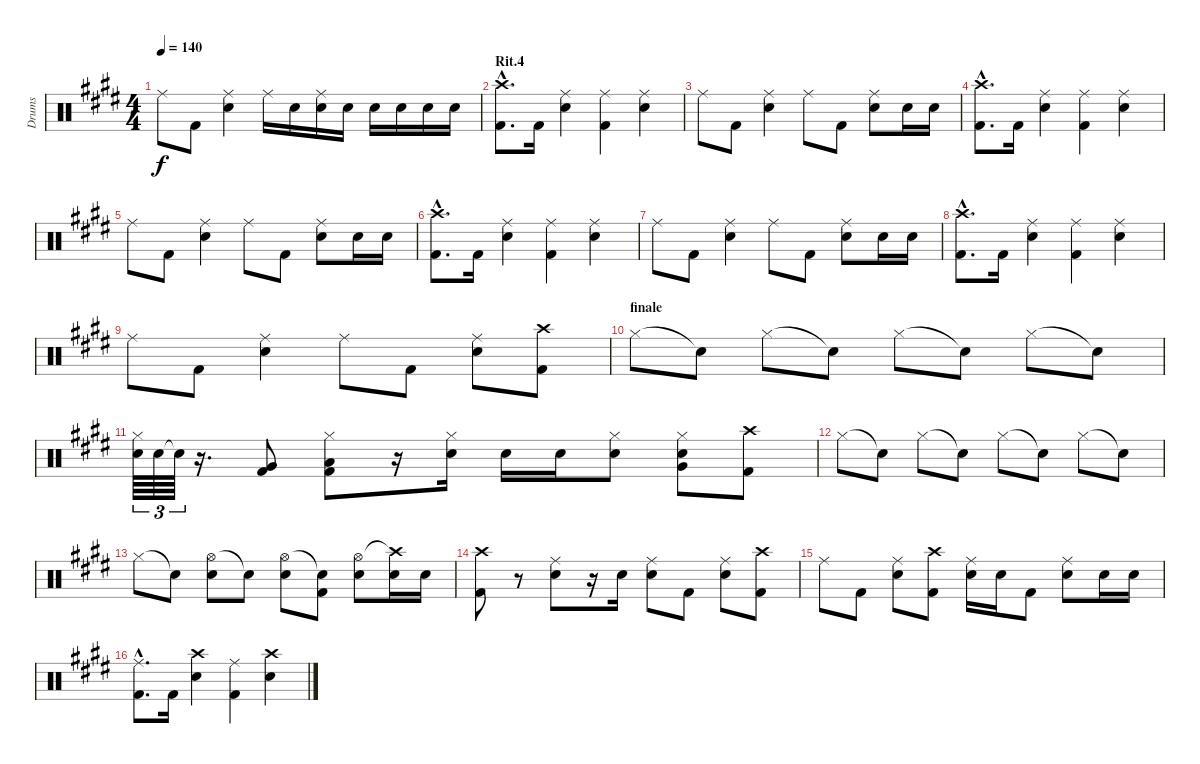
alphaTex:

\track ("Drums" "Drums") {instrument percussion}
\staff {score}
\articulation defaults
\ts (4 4)
\tempo 140
\clef neutral
\ks c#minor "Ride (middle)".8{dy f} "Kick (hit) 2".8
("Ride (middle)" "Snare (hit) 2").4 "Ride (middle)".16 "Snare (hit) 2".16 ("Ride (middle)" "Snare (hit) 2").16 "Snare (hit) 2".16 "Snare (hit) 2".16 "Snare (hit) 2".16 "Snare (hit) 2".16 "Snare (hit) 2".16 |
\section ("" "Rit.4")
("Crash high (hit)" "Kick (hit) 2"{hac}).8{d} "Kick (hit) 2".16 ("Ride (middle)" "Snare (hit) 2").4 ("Ride (middle)" "Kick (hit) 2").4 ("Ride (middle)" "Snare (hit) 2").4 |
"Ride (middle)".8 "Kick (hit) 2".8 ("Ride (middle)" "Snare (hit) 2").4 "Ride (middle)".8 "Kick (hit) 2".8 ("Ride (middle)" "Snare (hit) 2").8 "Snare (hit) 2".16 "Snare (hit) 2".16 |
("Crash high (hit)" "Kick (hit) 2"{hac}).8{d} "Kick (hit) 2".16 ("Ride (middle)" "Snare (hit) 2").4 ("Ride (middle)" "Kick (hit) 2").4 ("Ride (middle)" "Snare (hit) 2").4 |
"Ride (middle)".8 "Kick (hit) 2".8 ("Ride (middle)" "Snare (hit) 2").4 "Ride (middle)".8 "Kick (hit) 2".8 ("Ride (middle)" "Snare (hit) 2").8 "Snare (hit) 2".16 "Snare (hit) 2".16 |
("Crash high (hit)"{hac} "Kick (hit) 2"{hac}).8{d} "Kick (hit) 2".16 ("Ride (middle)" "Snare (hit) 2").4 ("Ride (middle)" "Kick (hit) 2").4 ("Ride (middle)" "Snare (hit) 2").4 |
"Ride (middle)".8 "Kick (hit) 2".8 ("Ride (middle)" "Snare (hit) 2").4 "Ride (middle)".8 "Kick (hit) 2".8 ("Ride (middle)" "Snare (hit) 2").8 "Snare (hit) 2".16 "Snare (hit) 2".16 |
("Crash high (hit)" "Kick (hit) 2"{hac}).8{d} "Kick (hit) 2".16 ("Ride (middle)" "Snare (hit) 2").4 ("Ride (middle)" "Kick (hit) 2").4 ("Ride (middle)" "Snare (hit) 2").4 |
"Ride (middle)".8 "Kick (hit) 2".8 ("Ride (middle)" "Snare (hit) 2").4 "Ride (middle)".8 "Kick (hit) 2".8 ("Ride (middle)" "Snare (hit) 2").8 ("Crash high (hit)" "Kick (hit) 2").8 |
\section ("" "finale")
"Hi-Hat (closed)".8 "Snare (hit)"{t}.8 "Hi-Hat (closed)".8 "Snare (hit)"{t}.8 "Hi-Hat (closed)".8 "Snare (hit)"{t}.8 "Hi-Hat (closed)".8 "Snare (hit)"{t}.8 |
("Hi-Hat (closed)" "Snare (hit) 2").64{tu (3 2)} "Snare (hit) 2".64{tu (3 2)} "Snare (hit) 2"{t}.64{tu (3 2)} r.16{d} ("Very Low Tom (hit)" "Kick (hit) 2").8 ("Hi-Hat (closed)" "Low Tom (hit)" "Kick (hit) 2").8 r.16 ("Hi-Hat (closed)" "Snare (hit) 2").16 "Snare (hit) 2".16 "Snare (hit) 2".16 ("Hi-Hat (closed)" "Snare (hit) 2").8 ("Hi-Hat (closed)" "Snare (hit) 2" "Very Low Tom (hit)").8 ("Crash high (hit)" "Kick (hit) 2").8 |
"Hi-Hat (closed)".8 "Snare (hit)"{t}.8 "Hi-Hat (closed)".8 "Snare (hit)"{t}.8 "Hi-Hat (closed)".8 "Snare (hit)"{t}.8 "Hi-Hat (closed)".8 "Snare (hit)"{t}.8 |
"Hi-Hat (closed)".8 "Snare (hit)"{t}.8 ("Hi-Hat (open)" "Snare (hit) 2").8 "Snare (hit)"{t}.8 ("Hi-Hat (open)" "Snare (hit) 2").8 ("Snare (hit)"{t} "Kick (hit) 2").8 ("Hi-Hat (open)" "Snare (hit) 2").8 ("Crash high (hit)"{t} "Snare (hit) 2").16 "Snare (hit) 2".16 |
("Crash high (hit)" "Kick (hit) 2").8 r.8 ("Ride (middle)" "Snare (hit) 2").8 r.16 "Snare (hit) 2".16 ("Ride (middle)" "Snare (hit) 2").8 "Kick (hit) 2".8 ("Ride (middle)" "Snare (hit) 2").8 ("Crash high (hit)" "Kick (hit) 2").8 |
"Ride (middle)".8 "Kick (hit) 2".8 ("Ride (middle)" "Snare (hit) 2").8 ("Crash high (hit)" "Kick (hit) 2").8 ("Ride (middle)" "Snare (hit) 2").16 "Snare (hit) 2".16 "Kick (hit) 2".8 ("Ride (middle)" "Snare (hit) 2").8 "Snare (hit) 2".16 "Snare (hit) 2".16 |
("Ride (middle)" "Kick (hit) 2"{hac}).8{d} "Kick (hit) 2".16 ("Crash high (hit)" "Snare (hit) 2").4 ("Ride (middle)" "Kick (hit) 2").4 ("Crash high (hit)" "Snare (hit) 2").4
